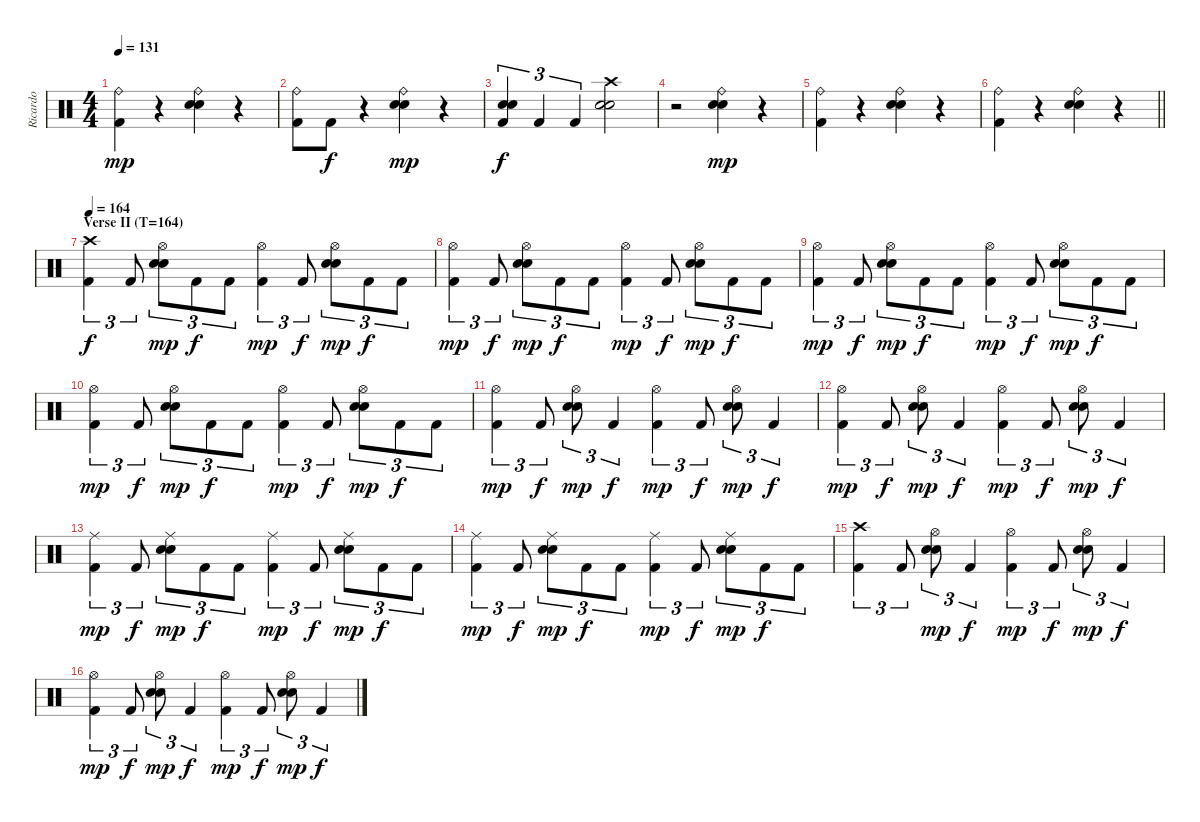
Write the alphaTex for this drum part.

\track ("Ricardo" "Ricardo") {instrument percussion}
\staff {score}
\articulation defaults
\ts (4 4)
\tempo 131
\clef neutral
\ks c
("Ride (bell)" "Kick (hit) 2").4{dy mp} r.4 ("Ride (bell)" "Electric Snare (hit)" "Snare (hit) 2").4 r.4 |
("Ride (bell)" "Kick (hit) 2").8 "Kick (hit) 2".8{dy f} r.4 ("Ride (bell)" "Electric Snare (hit)" "Snare (hit) 2").4{dy mp} r.4 |
("Electric Snare (hit)" "Snare (hit) 2" "Kick (hit) 2").4{tu (3 2) dy f} "Kick (hit) 2".4{tu (3 2)} "Kick (hit) 2".4{tu (3 2)} ("Crash high (hit)" "Electric Snare (hit)" "Snare (hit) 2").2 |
r.2 ("Ride (bell)" "Electric Snare (hit)" "Snare (hit) 2").4{dy mp} r.4 |
("Ride (bell)" "Kick (hit) 2").4 r.4 ("Ride (bell)" "Electric Snare (hit)" "Snare (hit) 2").4 r.4 |
\barLineRight lightlight
("Ride (bell)" "Kick (hit) 2").4 r.4 ("Ride (bell)" "Electric Snare (hit)" "Snare (hit) 2").4 r.4 |
\section ("" "Verse II (T=164)")
\tempo 164
("Crash high (hit)" "Kick (hit) 2").4{tu (3 2) dy f} "Kick (hit) 2".8{tu (3 2)} ("Hi-Hat (open)" "Electric Snare (hit)" "Snare (hit) 2").8{tu (3 2) dy mp} "Kick (hit) 2".8{tu (3 2) dy f} "Kick (hit) 2".8{tu (3 2)} ("Hi-Hat (open)" "Kick (hit) 2").4{tu (3 2) dy mp} "Kick (hit) 2".8{tu (3 2) dy f} ("Hi-Hat (open)" "Electric Snare (hit)" "Snare (hit) 2").8{tu (3 2) dy mp} "Kick (hit) 2".8{tu (3 2) dy f} "Kick (hit) 2".8{tu (3 2)} |
("Hi-Hat (open)" "Kick (hit) 2").4{tu (3 2) dy mp} "Kick (hit) 2".8{tu (3 2) dy f} ("Hi-Hat (open)" "Electric Snare (hit)" "Snare (hit) 2").8{tu (3 2) dy mp} "Kick (hit) 2".8{tu (3 2) dy f} "Kick (hit) 2".8{tu (3 2)} ("Hi-Hat (open)" "Kick (hit) 2").4{tu (3 2) dy mp} "Kick (hit) 2".8{tu (3 2) dy f} ("Hi-Hat (open)" "Electric Snare (hit)" "Snare (hit) 2").8{tu (3 2) dy mp} "Kick (hit) 2".8{tu (3 2) dy f} "Kick (hit) 2".8{tu (3 2)} |
("Hi-Hat (open)" "Kick (hit) 2").4{tu (3 2) dy mp} "Kick (hit) 2".8{tu (3 2) dy f} ("Hi-Hat (open)" "Electric Snare (hit)" "Snare (hit) 2").8{tu (3 2) dy mp} "Kick (hit) 2".8{tu (3 2) dy f} "Kick (hit) 2".8{tu (3 2)} ("Hi-Hat (open)" "Kick (hit) 2").4{tu (3 2) dy mp} "Kick (hit) 2".8{tu (3 2) dy f} ("Hi-Hat (open)" "Electric Snare (hit)" "Snare (hit) 2").8{tu (3 2) dy mp} "Kick (hit) 2".8{tu (3 2) dy f} "Kick (hit) 2".8{tu (3 2)} |
("Hi-Hat (open)" "Kick (hit) 2").4{tu (3 2) dy mp} "Kick (hit) 2".8{tu (3 2) dy f} ("Hi-Hat (open)" "Electric Snare (hit)" "Snare (hit) 2").8{tu (3 2) dy mp} "Kick (hit) 2".8{tu (3 2) dy f} "Kick (hit) 2".8{tu (3 2)} ("Hi-Hat (open)" "Kick (hit) 2").4{tu (3 2) dy mp} "Kick (hit) 2".8{tu (3 2) dy f} ("Hi-Hat (open)" "Electric Snare (hit)" "Snare (hit) 2").8{tu (3 2) dy mp} "Kick (hit) 2".8{tu (3 2) dy f} "Kick (hit) 2".8{tu (3 2)} |
("Hi-Hat (open)" "Kick (hit) 2").4{tu (3 2) dy mp} "Kick (hit) 2".8{tu (3 2) dy f} ("Hi-Hat (open)" "Electric Snare (hit)" "Snare (hit) 2").8{tu (3 2) dy mp} "Kick (hit) 2".4{tu (3 2) dy f} ("Hi-Hat (open)" "Kick (hit) 2").4{tu (3 2) dy mp} "Kick (hit) 2".8{tu (3 2) dy f} ("Hi-Hat (open)" "Electric Snare (hit)" "Snare (hit) 2").8{tu (3 2) dy mp} "Kick (hit) 2".4{tu (3 2) dy f} |
("Hi-Hat (open)" "Kick (hit) 2").4{tu (3 2) dy mp} "Kick (hit) 2".8{tu (3 2) dy f} ("Hi-Hat (open)" "Electric Snare (hit)" "Snare (hit) 2").8{tu (3 2) dy mp} "Kick (hit) 2".4{tu (3 2) dy f} ("Hi-Hat (open)" "Kick (hit) 2").4{tu (3 2) dy mp} "Kick (hit) 2".8{tu (3 2) dy f} ("Hi-Hat (open)" "Electric Snare (hit)" "Snare (hit) 2").8{tu (3 2) dy mp} "Kick (hit) 2".4{tu (3 2) dy f} |
("Ride (middle)" "Kick (hit) 2").4{tu (3 2) dy mp} "Kick (hit) 2".8{tu (3 2) dy f} ("Ride (middle)" "Electric Snare (hit)" "Snare (hit) 2").8{tu (3 2) dy mp} "Kick (hit) 2".8{tu (3 2) dy f} "Kick (hit) 2".8{tu (3 2)} ("Ride (middle)" "Kick (hit) 2").4{tu (3 2) dy mp} "Kick (hit) 2".8{tu (3 2) dy f} ("Ride (middle)" "Electric Snare (hit)" "Snare (hit) 2").8{tu (3 2) dy mp} "Kick (hit) 2".8{tu (3 2) dy f} "Kick (hit) 2".8{tu (3 2)} |
("Ride (middle)" "Kick (hit) 2").4{tu (3 2) dy mp} "Kick (hit) 2".8{tu (3 2) dy f} ("Ride (middle)" "Electric Snare (hit)" "Snare (hit) 2").8{tu (3 2) dy mp} "Kick (hit) 2".8{tu (3 2) dy f} "Kick (hit) 2".8{tu (3 2)} ("Ride (middle)" "Kick (hit) 2").4{tu (3 2) dy mp} "Kick (hit) 2".8{tu (3 2) dy f} ("Ride (middle)" "Electric Snare (hit)" "Snare (hit) 2").8{tu (3 2) dy mp} "Kick (hit) 2".8{tu (3 2) dy f} "Kick (hit) 2".8{tu (3 2)} |
("Crash high (hit)" "Kick (hit) 2").4{tu (3 2)} "Kick (hit) 2".8{tu (3 2)} ("Hi-Hat (open)" "Electric Snare (hit)" "Snare (hit) 2").8{tu (3 2) dy mp} "Kick (hit) 2".4{tu (3 2) dy f} ("Hi-Hat (open)" "Kick (hit) 2").4{tu (3 2) dy mp} "Kick (hit) 2".8{tu (3 2) dy f} ("Hi-Hat (open)" "Electric Snare (hit)" "Snare (hit) 2").8{tu (3 2) dy mp} "Kick (hit) 2".4{tu (3 2) dy f} |
("Hi-Hat (open)" "Kick (hit) 2").4{tu (3 2) dy mp} "Kick (hit) 2".8{tu (3 2) dy f} ("Hi-Hat (open)" "Electric Snare (hit)" "Snare (hit) 2").8{tu (3 2) dy mp} "Kick (hit) 2".4{tu (3 2) dy f} ("Hi-Hat (open)" "Kick (hit) 2").4{tu (3 2) dy mp} "Kick (hit) 2".8{tu (3 2) dy f} ("Hi-Hat (open)" "Electric Snare (hit)" "Snare (hit) 2").8{tu (3 2) dy mp} "Kick (hit) 2".4{tu (3 2) dy f}
